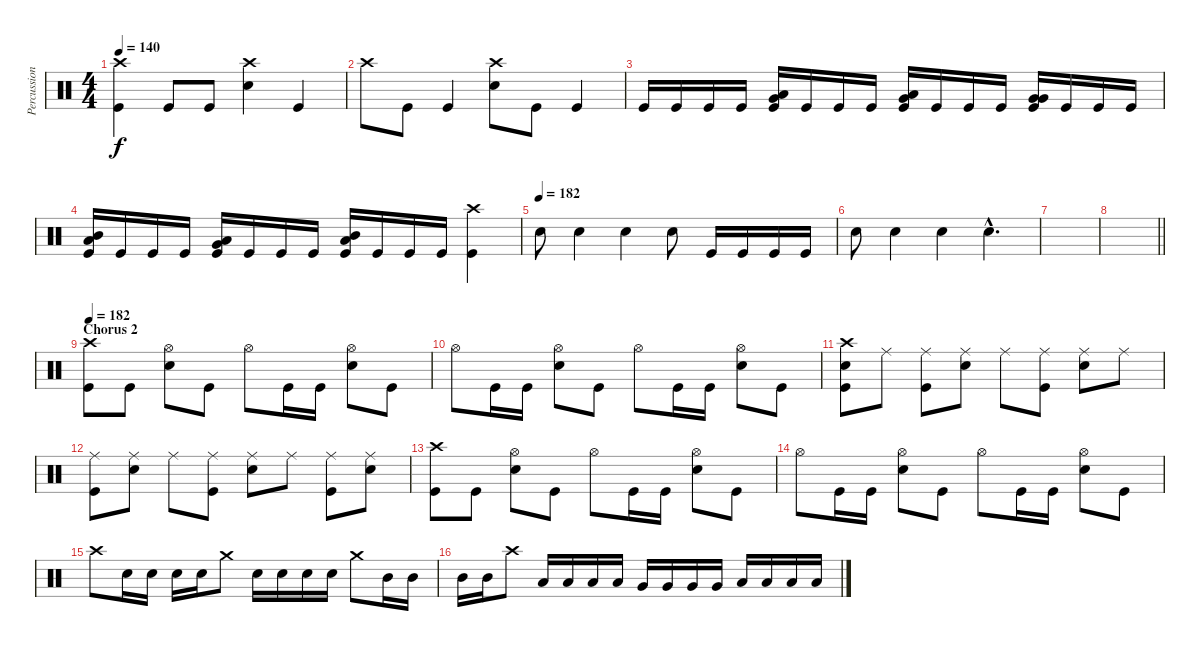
\track ("Percussion" "Percussion") {instrument percussion}
\staff {score}
\articulation defaults
\ts (4 4)
\tempo 140
\clef neutral
\ks c
("Crash high (hit)" "Kick (hit)").4{dy f} "Kick (hit)".8 "Kick (hit)".8 ("Crash high (hit)" "Snare (hit) 2").4 "Kick (hit)".4 |
"Crash high (hit)".8 "Kick (hit)".8 "Kick (hit)".4 ("Crash high (hit)" "Snare (hit) 2").8 "Kick (hit)".8 "Kick (hit)".4 |
"Kick (hit)".16 "Kick (hit)".16 "Kick (hit)".16 "Kick (hit)".16 ("Low Tom (hit)" "Very Low Tom (hit)" "Kick (hit)").16 "Kick (hit)".16 "Kick (hit)".16 "Kick (hit)".16 ("Very Low Tom (hit)" "Low Tom (hit)" "Kick (hit)").16 "Kick (hit)".16 "Kick (hit)".16 "Kick (hit)".16 ("Very Low Tom (hit)" "Very Low Tom (hit)" "Kick (hit)").16 "Kick (hit)".16 "Kick (hit)".16 "Kick (hit)".16 |
("Low Tom (hit)" "Mid Tom (hit)" "Kick (hit)").16 "Kick (hit)".16 "Kick (hit)".16 "Kick (hit)".16 ("Low Tom (hit)" "Very Low Tom (hit)" "Kick (hit)").16 "Kick (hit)".16 "Kick (hit)".16 "Kick (hit)".16 ("Mid Tom (hit)" "Low Tom (hit)" "Kick (hit)").16 "Kick (hit)".16 "Kick (hit)".16 "Kick (hit)".16 ("Crash high (hit)" "Kick (hit)").4 |
\tempo (182)
"Snare (hit) 2".8 "Snare (hit) 2".4 "Snare (hit) 2".4 "Snare (hit) 2".8 "Kick (hit)".16 "Kick (hit)".16 "Kick (hit)".16 "Kick (hit)".16 |
"Snare (hit) 2".8 "Snare (hit) 2".4 "Snare (hit) 2".4 "Snare (hit) 2"{hac}.4{d} |
|
\barLineRight lightlight
|
\section ("" "Chorus 2")
\tempo 182
("Crash high (hit)" "Kick (hit)").8 "Kick (hit)".8 ("Snare (hit) 2" "Hi-Hat (open)").8 "Kick (hit)".8 "Hi-Hat (open)".8 "Kick (hit)".16 "Kick (hit)".16 ("Snare (hit) 2" "Hi-Hat (open)").8 "Kick (hit)".8 |
"Hi-Hat (open)".8 "Kick (hit)".16 "Kick (hit)".16 ("Snare (hit) 2" "Hi-Hat (open)").8 "Kick (hit)".8 "Hi-Hat (open)".8 "Kick (hit)".16 "Kick (hit)".16 ("Snare (hit) 2" "Hi-Hat (open)").8 "Kick (hit)".8 |
("Kick (hit)" "Crash high (hit)" "Snare (hit) 2").8 "Ride (middle)".8 ("Ride (middle)" "Kick (hit)").8 ("Snare (hit) 2" "Ride (middle)").8 "Ride (middle)".8 ("Ride (middle)" "Kick (hit)").8 ("Ride (middle)" "Snare (hit) 2").8 "Ride (middle)".8 |
("Ride (middle)" "Kick (hit)").8 ("Ride (middle)" "Snare (hit) 2").8 "Ride (middle)".8 ("Ride (middle)" "Kick (hit)").8 ("Ride (middle)" "Snare (hit) 2").8 "Ride (middle)".8 ("Ride (middle)" "Kick (hit)").8 ("Ride (middle)" "Snare (hit) 2").8 |
("Crash high (hit)" "Kick (hit)").8 "Kick (hit)".8 ("Snare (hit) 2" "Hi-Hat (open)").8 "Kick (hit)".8 "Hi-Hat (open)".8 "Kick (hit)".16 "Kick (hit)".16 ("Snare (hit) 2" "Hi-Hat (open)").8 "Kick (hit)".8 |
"Hi-Hat (open)".8 "Kick (hit)".16 "Kick (hit)".16 ("Snare (hit) 2" "Hi-Hat (open)").8 "Kick (hit)".8 "Hi-Hat (open)".8 "Kick (hit)".16 "Kick (hit)".16 ("Snare (hit) 2" "Hi-Hat (open)").8 "Kick (hit)".8 |
"Crash high (hit)".8 "Snare (hit) 2".16 "Snare (hit) 2".16 "Snare (hit) 2".16 "Snare (hit) 2".16 "Crash medium (hit)".8 "Snare (hit) 2".16 "Snare (hit) 2".16 "Snare (hit) 2".16 "Snare (hit) 2".16 "Crash medium (hit)".8 "Mid Tom (hit)".16 "Mid Tom (hit)".16 |
"Mid Tom (hit)".16 "Mid Tom (hit)".16 "Crash high (hit)".8 "Low Tom (hit)".16 "Low Tom (hit)".16 "Low Tom (hit)".16 "Low Tom (hit)".16 "Very Low Tom (hit)".16 "Very Low Tom (hit)".16 "Very Low Tom (hit)".16 "Very Low Tom (hit)".16 "Low Floor Tom (hit)".16 "Low Floor Tom (hit)".16 "Low Floor Tom (hit)".16 "Low Floor Tom (hit)".16
